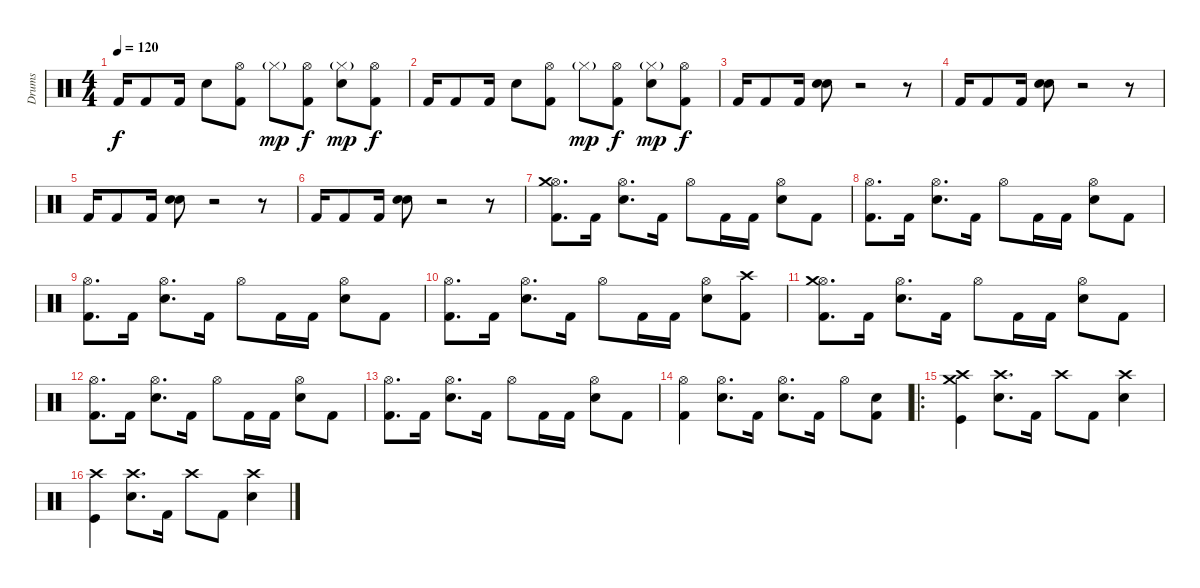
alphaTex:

\track ("Drums" "Drums") {instrument percussion}
\staff {score}
\articulation defaults
\ts (4 4)
\tempo 120
\clef neutral
\ks c "Kick (hit) 2".16{dy f} "Kick (hit) 2".8 "Kick (hit) 2".16 "Snare (hit) 2".8
("Hi-Hat (open)" "Kick (hit) 2").8 "Hi-Hat (closed)"{g}.8{dy mp} ("Hi-Hat (open)" "Kick (hit) 2").8{dy f} ("Hi-Hat (closed)"{g} "Snare (hit) 2").8{dy mp} ("Hi-Hat (open)" "Kick (hit) 2").8{dy f} |
"Kick (hit) 2".16 "Kick (hit) 2".8 "Kick (hit) 2".16 "Snare (hit) 2".8 ("Hi-Hat (open)" "Kick (hit) 2").8 "Hi-Hat (closed)"{g}.8{dy mp} ("Hi-Hat (open)" "Kick (hit) 2").8{dy f} ("Hi-Hat (closed)"{g} "Snare (hit) 2").8{dy mp} ("Hi-Hat (open)" "Kick (hit) 2").8{dy f} |
"Kick (hit) 2".16 "Kick (hit) 2".8 "Kick (hit) 2".16 ("Snare (hit) 2" "Hand Clap (hit)").8 r.2 r.8 |
"Kick (hit) 2".16 "Kick (hit) 2".8 "Kick (hit) 2".16 ("Snare (hit) 2" "Hand Clap (hit)").8 r.2 r.8 |
"Kick (hit) 2".16 "Kick (hit) 2".8 "Kick (hit) 2".16 ("Snare (hit) 2" "Hand Clap (hit)").8 r.2 r.8 |
"Kick (hit) 2".16 "Kick (hit) 2".8 "Kick (hit) 2".16 ("Snare (hit) 2" "Hand Clap (hit)").8 r.2 r.8 |
("Hi-Hat (open)" "Crash medium (hit)" "Kick (hit) 2").8{d} "Kick (hit) 2".16 ("Hi-Hat (open)" "Snare (hit) 2").8{d} "Kick (hit) 2".16 "Hi-Hat (open)".8 "Kick (hit) 2".16 "Kick (hit) 2".16 ("Hi-Hat (open)" "Snare (hit) 2").8 "Kick (hit) 2".8 |
("Hi-Hat (open)" "Kick (hit) 2").8{d} "Kick (hit) 2".16 ("Hi-Hat (open)" "Snare (hit) 2").8{d} "Kick (hit) 2".16 "Hi-Hat (open)".8 "Kick (hit) 2".16 "Kick (hit) 2".16 ("Hi-Hat (open)" "Snare (hit) 2").8 "Kick (hit) 2".8 |
("Hi-Hat (open)" "Kick (hit) 2").8{d} "Kick (hit) 2".16 ("Hi-Hat (open)" "Snare (hit) 2").8{d} "Kick (hit) 2".16 "Hi-Hat (open)".8 "Kick (hit) 2".16 "Kick (hit) 2".16 ("Hi-Hat (open)" "Snare (hit) 2").8 "Kick (hit) 2".8 |
("Hi-Hat (open)" "Kick (hit) 2").8{d} "Kick (hit) 2".16 ("Hi-Hat (open)" "Snare (hit) 2").8{d} "Kick (hit) 2".16 "Hi-Hat (open)".8 "Kick (hit) 2".16 "Kick (hit) 2".16 ("Hi-Hat (open)" "Snare (hit) 2").8 ("Crash high (hit)" "Kick (hit) 2").8 |
("Hi-Hat (open)" "Crash medium (hit)" "Kick (hit) 2").8{d} "Kick (hit) 2".16 ("Hi-Hat (open)" "Snare (hit) 2").8{d} "Kick (hit) 2".16 "Hi-Hat (open)".8 "Kick (hit) 2".16 "Kick (hit) 2".16 ("Hi-Hat (open)" "Snare (hit) 2").8 "Kick (hit) 2".8 |
("Hi-Hat (open)" "Kick (hit) 2").8{d} "Kick (hit) 2".16 ("Hi-Hat (open)" "Snare (hit) 2").8{d} "Kick (hit) 2".16 "Hi-Hat (open)".8 "Kick (hit) 2".16 "Kick (hit) 2".16 ("Hi-Hat (open)" "Snare (hit) 2").8 "Kick (hit) 2".8 |
("Hi-Hat (open)" "Kick (hit) 2").8{d} "Kick (hit) 2".16 ("Hi-Hat (open)" "Snare (hit) 2").8{d} "Kick (hit) 2".16 "Hi-Hat (open)".8 "Kick (hit) 2".16 "Kick (hit) 2".16 ("Hi-Hat (open)" "Snare (hit) 2").8 "Kick (hit) 2".8 |
("Hi-Hat (open)" "Kick (hit) 2").4 ("Hi-Hat (open)" "Snare (hit) 2").8{d} "Kick (hit) 2".16 ("Hi-Hat (open)" "Snare (hit) 2").8{d} "Kick (hit) 2".16 "Hi-Hat (open)".8 ("Snare (hit) 2" "Kick (hit) 2").8 |
\ro
("Crash high (hit)" "Crash medium (hit)" "Kick (hit)").4 ("Crash high (hit)" "Snare (hit) 2").8{d} "Kick (hit) 2".16 "Crash high (hit)".8 "Kick (hit) 2".8 ("Crash high (hit)" "Snare (hit) 2").4 |
("Crash high (hit)" "Kick (hit)").4 ("Crash high (hit)" "Snare (hit) 2").8{d} "Kick (hit) 2".16 "Crash high (hit)".8 "Kick (hit) 2".8 ("Crash high (hit)" "Snare (hit) 2").4
